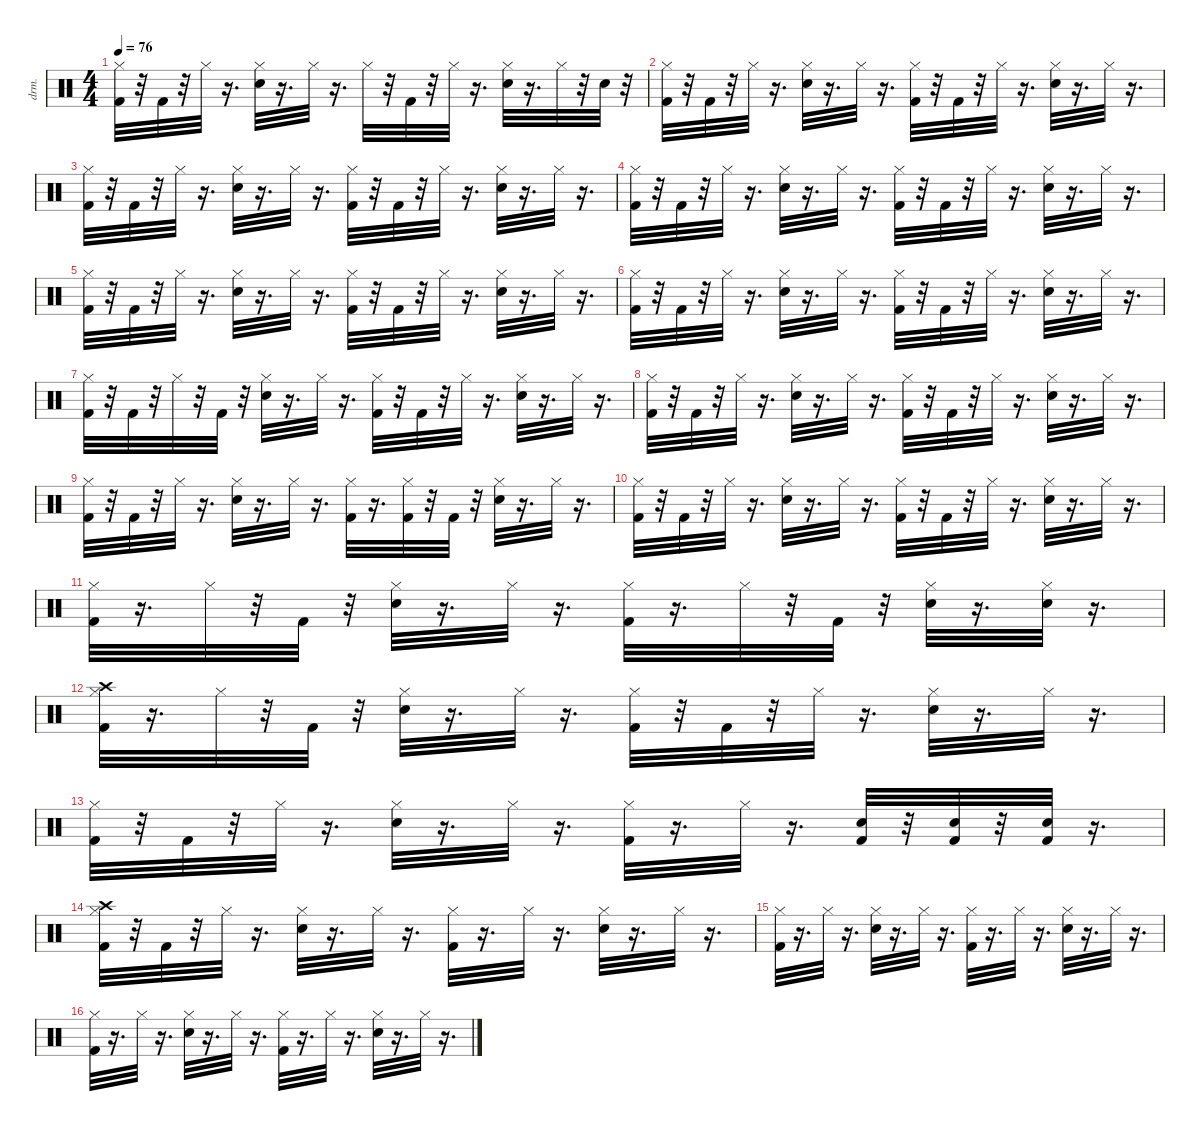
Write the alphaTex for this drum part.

\defaultSystemsLayout 4
\hideDynamics
\bracketExtendMode nobrackets
\otherSystemsTrackNameOrientation horizontal
\track ("Drums" "drm.") {instrument percussion}
\staff {score}
\articulation defaults
\ts (4 4)
\tempo 76
\clef neutral
\ks c
("Kick (hit) 2" "Hi-Hat (closed)").32{dy fff} r.32 "Kick (hit) 2".32 r.32 "Hi-Hat (closed)".32 r.16{d} ("Snare (hit) 2" "Hi-Hat (closed)").32 r.16{d} "Hi-Hat (closed)".32 r.16{d} "Hi-Hat (closed)".32 r.32 "Kick (hit) 2".32 r.32 "Hi-Hat (closed)".32 r.16{d} ("Snare (hit) 2" "Hi-Hat (closed)").32 r.16{d} "Hi-Hat (closed)".32 r.32 "Snare (hit) 2".32 r.32 |
("Hi-Hat (closed)" "Kick (hit) 2").32 r.32 "Kick (hit) 2".32 r.32 "Hi-Hat (closed)".32 r.16{d} ("Hi-Hat (closed)" "Snare (hit) 2").32 r.16{d} "Hi-Hat (closed)".32 r.16{d} ("Hi-Hat (closed)" "Kick (hit) 2").32 r.32 "Kick (hit) 2".32 r.32 "Hi-Hat (closed)".32 r.16{d} ("Hi-Hat (closed)" "Snare (hit) 2").32 r.16{d} "Hi-Hat (closed)".32 r.16{d} |
("Kick (hit) 2" "Hi-Hat (closed)").32 r.32 "Kick (hit) 2".32 r.32 "Hi-Hat (closed)".32 r.16{d} ("Snare (hit) 2" "Hi-Hat (closed)").32 r.16{d} "Hi-Hat (closed)".32 r.16{d} ("Kick (hit) 2" "Hi-Hat (closed)").32 r.32 "Kick (hit) 2".32 r.32 "Hi-Hat (closed)".32 r.16{d} ("Snare (hit) 2" "Hi-Hat (closed)").32 r.16{d} "Hi-Hat (closed)".32 r.16{d} |
("Hi-Hat (closed)" "Kick (hit) 2").32 r.32 "Kick (hit) 2".32 r.32 "Hi-Hat (closed)".32 r.16{d} ("Hi-Hat (closed)" "Snare (hit) 2").32 r.16{d} "Hi-Hat (closed)".32 r.16{d} ("Hi-Hat (closed)" "Kick (hit) 2").32 r.32 "Kick (hit) 2".32 r.32 "Hi-Hat (closed)".32 r.16{d} ("Hi-Hat (closed)" "Snare (hit) 2").32 r.16{d} "Hi-Hat (closed)".32 r.16{d} |
("Kick (hit) 2" "Hi-Hat (closed)").32 r.32 "Kick (hit) 2".32 r.32 "Hi-Hat (closed)".32 r.16{d} ("Snare (hit) 2" "Hi-Hat (closed)").32 r.16{d} "Hi-Hat (closed)".32 r.16{d} ("Kick (hit) 2" "Hi-Hat (closed)").32 r.32 "Kick (hit) 2".32 r.32 "Hi-Hat (closed)".32 r.16{d} ("Snare (hit) 2" "Hi-Hat (closed)").32 r.16{d} "Hi-Hat (closed)".32 r.16{d} |
("Hi-Hat (closed)" "Kick (hit) 2").32 r.32 "Kick (hit) 2".32 r.32 "Hi-Hat (closed)".32 r.16{d} ("Hi-Hat (closed)" "Snare (hit) 2").32 r.16{d} "Hi-Hat (closed)".32 r.16{d} ("Hi-Hat (closed)" "Kick (hit) 2").32 r.32 "Kick (hit) 2".32 r.32 "Hi-Hat (closed)".32 r.16{d} ("Hi-Hat (closed)" "Snare (hit) 2").32 r.16{d} "Hi-Hat (closed)".32 r.16{d} |
("Kick (hit) 2" "Hi-Hat (closed)").32 r.32 "Kick (hit) 2".32 r.32 "Hi-Hat (closed)".32 r.32 "Kick (hit) 2".32 r.32 ("Snare (hit) 2" "Hi-Hat (closed)").32 r.16{d} "Hi-Hat (closed)".32 r.16{d} ("Kick (hit) 2" "Hi-Hat (closed)").32 r.32 "Kick (hit) 2".32 r.32 "Hi-Hat (closed)".32 r.16{d} ("Snare (hit) 2" "Hi-Hat (closed)").32 r.16{d} "Hi-Hat (closed)".32 r.16{d} |
("Hi-Hat (closed)" "Kick (hit) 2").32 r.32 "Kick (hit) 2".32 r.32 "Hi-Hat (closed)".32 r.16{d} ("Hi-Hat (closed)" "Snare (hit) 2").32 r.16{d} "Hi-Hat (closed)".32 r.16{d} ("Hi-Hat (closed)" "Kick (hit) 2").32 r.32 "Kick (hit) 2".32 r.32 "Hi-Hat (closed)".32 r.16{d} ("Hi-Hat (closed)" "Snare (hit) 2").32 r.16{d} "Hi-Hat (closed)".32 r.16{d} |
("Kick (hit) 2" "Hi-Hat (closed)").32 r.32 "Kick (hit) 2".32 r.32 "Hi-Hat (closed)".32 r.16{d} ("Snare (hit) 2" "Hi-Hat (closed)").32 r.16{d} "Hi-Hat (closed)".32 r.16{d} ("Kick (hit) 2" "Hi-Hat (closed)").32 r.16{d} ("Kick (hit) 2" "Hi-Hat (closed)").32 r.32 "Kick (hit) 2".32 r.32 ("Snare (hit) 2" "Hi-Hat (closed)").32 r.16{d} "Hi-Hat (closed)".32 r.16{d} |
("Hi-Hat (closed)" "Kick (hit) 2").32 r.32 "Kick (hit) 2".32 r.32 "Hi-Hat (closed)".32 r.16{d} ("Hi-Hat (closed)" "Snare (hit) 2").32 r.16{d} "Hi-Hat (closed)".32 r.16{d} ("Hi-Hat (closed)" "Kick (hit) 2").32 r.32 "Kick (hit) 2".32 r.32 "Hi-Hat (closed)".32 r.16{d} ("Hi-Hat (closed)" "Snare (hit) 2").32 r.16{d} "Hi-Hat (closed)".32 r.16{d} |
("Kick (hit) 2" "Hi-Hat (closed)").32 r.16{d} "Hi-Hat (closed)".32 r.32 "Kick (hit) 2".32 r.32 ("Snare (hit) 2" "Hi-Hat (closed)").32 r.16{d} "Hi-Hat (closed)".32 r.16{d} ("Kick (hit) 2" "Hi-Hat (closed)").32 r.16{d} "Hi-Hat (closed)".32 r.32 "Kick (hit) 2".32 r.32 ("Snare (hit) 2" "Hi-Hat (closed)").32 r.16{d} ("Snare (hit) 2" "Hi-Hat (closed)").32 r.16{d} |
("Crash high (hit)" "Hi-Hat (closed)" "Kick (hit) 2").32 r.16{d} "Hi-Hat (closed)".32 r.32 "Kick (hit) 2".32 r.32 ("Hi-Hat (closed)" "Snare (hit) 2").32 r.16{d} "Hi-Hat (closed)".32 r.16{d} ("Hi-Hat (closed)" "Kick (hit) 2").32 r.32 "Kick (hit) 2".32 r.32 "Hi-Hat (closed)".32 r.16{d} ("Hi-Hat (closed)" "Snare (hit) 2").32 r.16{d} "Hi-Hat (closed)".32 r.16{d} |
("Kick (hit) 2" "Hi-Hat (closed)").32 r.32 "Kick (hit) 2".32 r.32 "Hi-Hat (closed)".32 r.16{d} ("Snare (hit) 2" "Hi-Hat (closed)").32 r.16{d} "Hi-Hat (closed)".32 r.16{d} ("Kick (hit) 2" "Hi-Hat (closed)").32 r.16{d} "Hi-Hat (closed)".32 r.16{d} ("Kick (hit) 2" "Snare (hit) 2").32 r.32 ("Kick (hit) 2" "Snare (hit) 2").32 r.32 ("Kick (hit) 2" "Snare (hit) 2").32 r.16{d} |
("Crash high (hit)" "Hi-Hat (closed)" "Kick (hit) 2").32 r.32 "Kick (hit) 2".32 r.32 "Hi-Hat (closed)".32 r.16{d} ("Hi-Hat (closed)" "Snare (hit) 2").32 r.16{d} "Hi-Hat (closed)".32 r.16{d} ("Kick (hit) 2" "Hi-Hat (closed)").32 r.16{d} "Hi-Hat (closed)".32 r.16{d} ("Hi-Hat (closed)" "Snare (hit) 2").32 r.16{d} "Hi-Hat (closed)".32 r.16{d} |
("Kick (hit) 2" "Hi-Hat (closed)").32 r.16{d} "Hi-Hat (closed)".32 r.16{d} ("Snare (hit) 2" "Hi-Hat (closed)").32 r.16{d} "Hi-Hat (closed)".32 r.16{d} ("Kick (hit) 2" "Hi-Hat (closed)").32 r.16{d} "Hi-Hat (closed)".32 r.16{d} ("Hi-Hat (closed)" "Snare (hit) 2").32 r.16{d} "Hi-Hat (closed)".32 r.16{d} |
("Hi-Hat (closed)" "Kick (hit) 2").32 r.16{d} "Hi-Hat (closed)".32 r.16{d} ("Hi-Hat (closed)" "Snare (hit) 2").32 r.16{d} "Hi-Hat (closed)".32 r.16{d} ("Kick (hit) 2" "Hi-Hat (closed)").32 r.16{d} "Hi-Hat (closed)".32 r.16{d} ("Hi-Hat (closed)" "Snare (hit) 2").32 r.16{d} "Hi-Hat (closed)".32 r.16{d}
